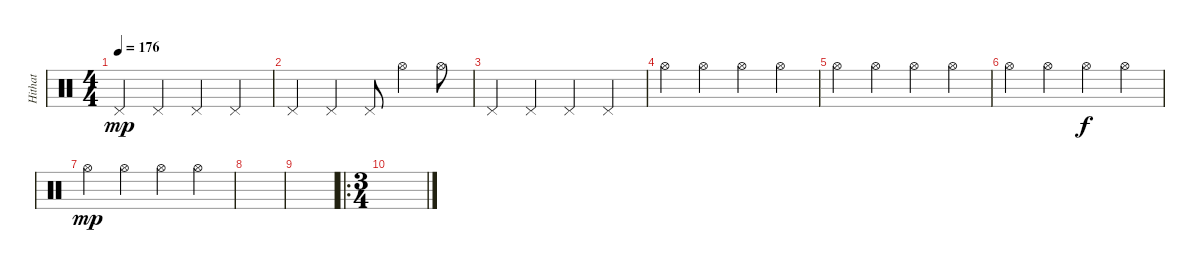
\track ("Hithat" "Hithat") {instrument percussion}
\staff {score}
\articulation defaults
\ts (4 4)
\tempo 176
\clef neutral
\ks c "Pedal Hi-Hat (hit)".4{dy mp} "Pedal Hi-Hat (hit)".4 "Pedal Hi-Hat (hit)".4 "Pedal Hi-Hat (hit)".4
|
"Pedal Hi-Hat (hit)".4 "Pedal Hi-Hat (hit)".4 "Pedal Hi-Hat (hit)".8 "Hi-Hat (open)".4 "Hi-Hat (open)".8 |
"Pedal Hi-Hat (hit)".4 "Pedal Hi-Hat (hit)".4 "Pedal Hi-Hat (hit)".4 "Pedal Hi-Hat (hit)".4 |
"Hi-Hat (open)".4 "Hi-Hat (open)".4 "Hi-Hat (open)".4 "Hi-Hat (open)".4 |
"Hi-Hat (open)".4 "Hi-Hat (open)".4 "Hi-Hat (open)".4 "Hi-Hat (open)".4 |
"Hi-Hat (open)".4 "Hi-Hat (open)".4 "Hi-Hat (open)".4{dy f} "Hi-Hat (open)".4 |
"Hi-Hat (open)".4{dy mp} "Hi-Hat (open)".4 "Hi-Hat (open)".4 "Hi-Hat (open)".4 |
|
|
\ro
\ts (3 4)
